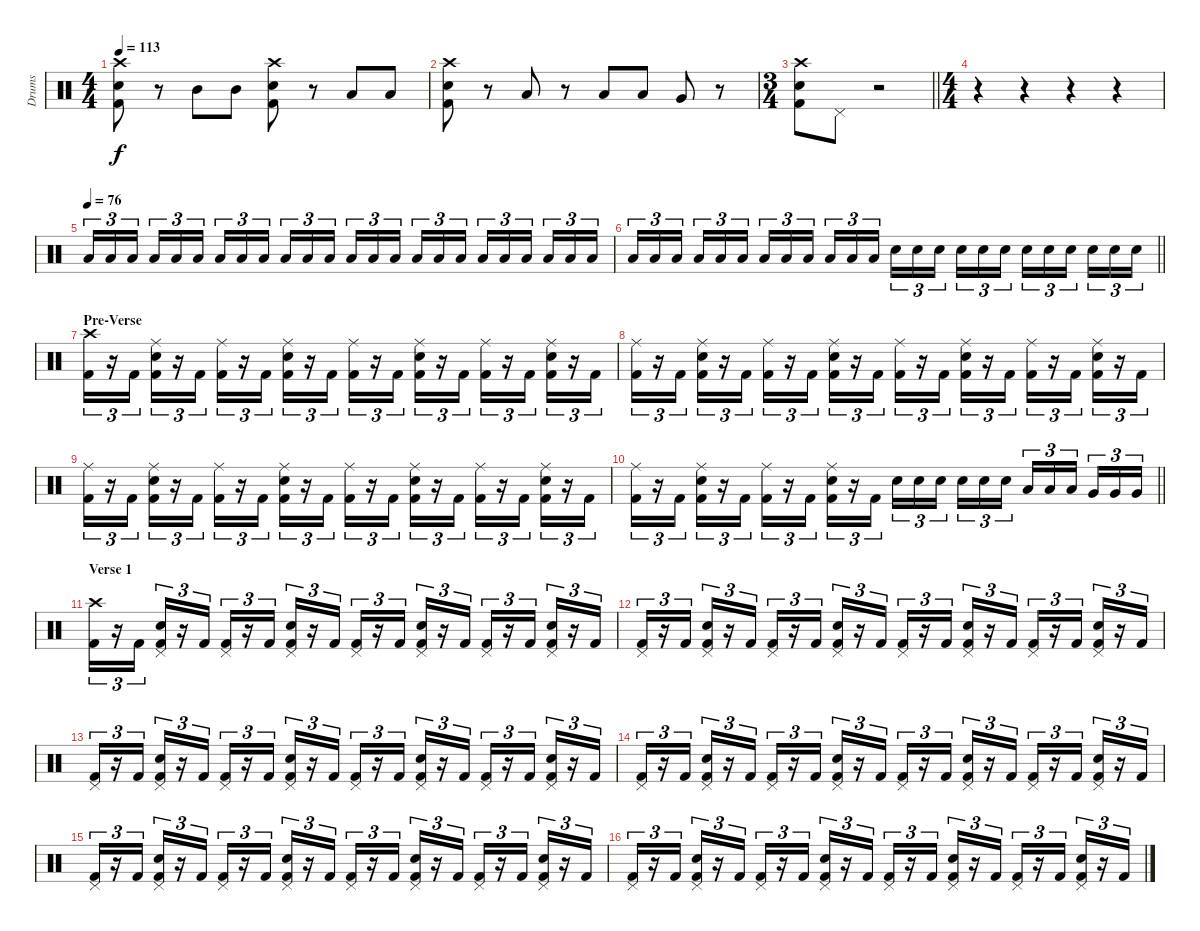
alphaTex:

\track ("Drums" "Drums") {instrument percussion}
\staff {score}
\articulation defaults
\ts (4 4)
\tempo 113
\clef neutral
\ks c
("Crash high (hit)" "Snare (hit) 2" "Kick (hit) 2").8{dy f} r.8 "Mid Tom (hit)".8 "Mid Tom (hit)".8 ("Crash high (hit)" "Snare (hit) 2" "Kick (hit) 2").8 r.8 "Low Tom (hit)".8 "Low Tom (hit)".8 |
("Crash high (hit)" "Snare (hit) 2" "Kick (hit) 2").8 r.8 "Low Tom (hit)".8 r.8 "Low Tom (hit)".8 "Low Tom (hit)".8 "Very Low Tom (hit)".8 r.8 |
\ts (3 4)
\barLineRight lightlight
("Crash high (hit)" "Snare (hit) 2" "Kick (hit) 2").8 "Pedal Hi-Hat (hit)".8 r.2 |
\ts (4 4)
r.4 r.4 r.4 r.4 |
\tempo (76)
"Low Tom (hit)".16{tu (3 2)} "Low Tom (hit)".16{tu (3 2)} "Low Tom (hit)".16{tu (3 2) beam splitsecondary} "Low Tom (hit)".16{tu (3 2)} "Low Tom (hit)".16{tu (3 2)} "Low Tom (hit)".16{tu (3 2)} "Low Tom (hit)".16{tu (3 2)} "Low Tom (hit)".16{tu (3 2)} "Low Tom (hit)".16{tu (3 2) beam splitsecondary} "Low Tom (hit)".16{tu (3 2)} "Low Tom (hit)".16{tu (3 2)} "Low Tom (hit)".16{tu (3 2)} "Low Tom (hit)".16{tu (3 2)} "Low Tom (hit)".16{tu (3 2)} "Low Tom (hit)".16{tu (3 2) beam splitsecondary} "Low Tom (hit)".16{tu (3 2)} "Low Tom (hit)".16{tu (3 2)} "Low Tom (hit)".16{tu (3 2)} "Low Tom (hit)".16{tu (3 2)} "Low Tom (hit)".16{tu (3 2)} "Low Tom (hit)".16{tu (3 2) beam splitsecondary} "Low Tom (hit)".16{tu (3 2)} "Low Tom (hit)".16{tu (3 2)} "Low Tom (hit)".16{tu (3 2)} |
\barLineRight lightlight "Low Tom (hit)".16{tu (3 2)} "Low Tom (hit)".16{tu (3 2)} "Low Tom (hit)".16{tu (3 2) beam splitsecondary} "Low Tom (hit)".16{tu (3 2)} "Low Tom (hit)".16{tu (3 2)} "Low Tom (hit)".16{tu (3 2)} "Low Tom (hit)".16{tu (3 2)} "Low Tom (hit)".16{tu (3 2)} "Low Tom (hit)".16{tu (3 2) beam splitsecondary} "Low Tom (hit)".16{tu (3 2)} "Low Tom (hit)".16{tu (3 2)} "Low Tom (hit)".16{tu (3 2)} "Snare (hit) 2".16{tu (3 2)} "Snare (hit) 2".16{tu (3 2)} "Snare (hit) 2".16{tu (3 2) beam splitsecondary} "Snare (hit) 2".16{tu (3 2)} "Snare (hit) 2".16{tu (3 2)} "Snare (hit) 2".16{tu (3 2)} "Snare (hit) 2".16{tu (3 2)} "Snare (hit) 2".16{tu (3 2)} "Snare (hit) 2".16{tu (3 2) beam splitsecondary} "Snare (hit) 2".16{tu (3 2)} "Snare (hit) 2".16{tu (3 2)} "Snare (hit) 2".16{tu (3 2)}
|
\section ("" "Pre-Verse")
("Crash high (hit)" "Kick (hit) 2").16{tu (3 2)} r.16{tu (3 2)} "Kick (hit) 2".16{tu (3 2)} ("Ride (middle)" "Snare (hit) 2" "Kick (hit) 2").16{tu (3 2)} r.16{tu (3 2)} "Kick (hit) 2".16{tu (3 2)} ("Ride (middle)" "Kick (hit) 2").16{tu (3 2)} r.16{tu (3 2)} "Kick (hit) 2".16{tu (3 2)} ("Ride (middle)" "Snare (hit) 2" "Kick (hit) 2").16{tu (3 2)} r.16{tu (3 2)} "Kick (hit) 2".16{tu (3 2)} ("Ride (middle)" "Kick (hit) 2").16{tu (3 2)} r.16{tu (3 2)} "Kick (hit) 2".16{tu (3 2)} ("Ride (middle)" "Snare (hit) 2" "Kick (hit) 2").16{tu (3 2)} r.16{tu (3 2)} "Kick (hit) 2".16{tu (3 2)} ("Ride (middle)" "Kick (hit) 2").16{tu (3 2)} r.16{tu (3 2)} "Kick (hit) 2".16{tu (3 2)} ("Ride (middle)" "Snare (hit) 2" "Kick (hit) 2").16{tu (3 2)} r.16{tu (3 2)} "Kick (hit) 2".16{tu (3 2)} |
("Ride (middle)" "Kick (hit) 2").16{tu (3 2)} r.16{tu (3 2)} "Kick (hit) 2".16{tu (3 2)} ("Ride (middle)" "Snare (hit) 2" "Kick (hit) 2").16{tu (3 2)} r.16{tu (3 2)} "Kick (hit) 2".16{tu (3 2)} ("Ride (middle)" "Kick (hit) 2").16{tu (3 2)} r.16{tu (3 2)} "Kick (hit) 2".16{tu (3 2)} ("Ride (middle)" "Snare (hit) 2" "Kick (hit) 2").16{tu (3 2)} r.16{tu (3 2)} "Kick (hit) 2".16{tu (3 2)} ("Ride (middle)" "Kick (hit) 2").16{tu (3 2)} r.16{tu (3 2)} "Kick (hit) 2".16{tu (3 2)} ("Ride (middle)" "Snare (hit) 2" "Kick (hit) 2").16{tu (3 2)} r.16{tu (3 2)} "Kick (hit) 2".16{tu (3 2)} ("Ride (middle)" "Kick (hit) 2").16{tu (3 2)} r.16{tu (3 2)} "Kick (hit) 2".16{tu (3 2)} ("Ride (middle)" "Snare (hit) 2" "Kick (hit) 2").16{tu (3 2)} r.16{tu (3 2)} "Kick (hit) 2".16{tu (3 2)} |
("Ride (middle)" "Kick (hit) 2").16{tu (3 2)} r.16{tu (3 2)} "Kick (hit) 2".16{tu (3 2)} ("Ride (middle)" "Snare (hit) 2" "Kick (hit) 2").16{tu (3 2)} r.16{tu (3 2)} "Kick (hit) 2".16{tu (3 2)} ("Ride (middle)" "Kick (hit) 2").16{tu (3 2)} r.16{tu (3 2)} "Kick (hit) 2".16{tu (3 2)} ("Ride (middle)" "Snare (hit) 2" "Kick (hit) 2").16{tu (3 2)} r.16{tu (3 2)} "Kick (hit) 2".16{tu (3 2)} ("Ride (middle)" "Kick (hit) 2").16{tu (3 2)} r.16{tu (3 2)} "Kick (hit) 2".16{tu (3 2)} ("Ride (middle)" "Snare (hit) 2" "Kick (hit) 2").16{tu (3 2)} r.16{tu (3 2)} "Kick (hit) 2".16{tu (3 2)} ("Ride (middle)" "Kick (hit) 2").16{tu (3 2)} r.16{tu (3 2)} "Kick (hit) 2".16{tu (3 2)} ("Ride (middle)" "Snare (hit) 2" "Kick (hit) 2").16{tu (3 2)} r.16{tu (3 2)} "Kick (hit) 2".16{tu (3 2)} |
\barLineRight lightlight
("Ride (middle)" "Kick (hit) 2").16{tu (3 2)} r.16{tu (3 2)} "Kick (hit) 2".16{tu (3 2)} ("Ride (middle)" "Snare (hit) 2" "Kick (hit) 2").16{tu (3 2)} r.16{tu (3 2)} "Kick (hit) 2".16{tu (3 2)} ("Ride (middle)" "Kick (hit) 2").16{tu (3 2)} r.16{tu (3 2)} "Kick (hit) 2".16{tu (3 2)} ("Ride (middle)" "Snare (hit) 2" "Kick (hit) 2").16{tu (3 2)} r.16{tu (3 2)} "Kick (hit) 2".16{tu (3 2)} "Snare (hit) 2".16{tu (3 2)} "Snare (hit) 2".16{tu (3 2)} "Snare (hit) 2".16{tu (3 2) beam splitsecondary} "Snare (hit) 2".16{tu (3 2)} "Snare (hit) 2".16{tu (3 2)} "Snare (hit) 2".16{tu (3 2)} "Low Tom (hit)".16{tu (3 2)} "Low Tom (hit)".16{tu (3 2)} "Low Tom (hit)".16{tu (3 2) beam splitsecondary} "Very Low Tom (hit)".16{tu (3 2)} "Very Low Tom (hit)".16{tu (3 2)} "Very Low Tom (hit)".16{tu (3 2)} |
\section ("" "Verse 1")
("Crash high (hit)" "Kick (hit) 2").16{tu (3 2)} r.16{tu (3 2)} "Kick (hit) 2".16{tu (3 2)} ("Pedal Hi-Hat (hit)" "Snare (hit) 2" "Kick (hit) 2").16{tu (3 2)} r.16{tu (3 2)} "Kick (hit) 2".16{tu (3 2)} ("Pedal Hi-Hat (hit)" "Kick (hit) 2").16{tu (3 2)} r.16{tu (3 2)} "Kick (hit) 2".16{tu (3 2)} ("Pedal Hi-Hat (hit)" "Snare (hit) 2" "Kick (hit) 2").16{tu (3 2)} r.16{tu (3 2)} "Kick (hit) 2".16{tu (3 2)} ("Pedal Hi-Hat (hit)" "Kick (hit) 2").16{tu (3 2)} r.16{tu (3 2)} "Kick (hit) 2".16{tu (3 2)} ("Pedal Hi-Hat (hit)" "Snare (hit) 2" "Kick (hit) 2").16{tu (3 2)} r.16{tu (3 2)} "Kick (hit) 2".16{tu (3 2)} ("Pedal Hi-Hat (hit)" "Kick (hit) 2").16{tu (3 2)} r.16{tu (3 2)} "Kick (hit) 2".16{tu (3 2)} ("Pedal Hi-Hat (hit)" "Snare (hit) 2" "Kick (hit) 2").16{tu (3 2)} r.16{tu (3 2)} "Kick (hit) 2".16{tu (3 2)} |
("Pedal Hi-Hat (hit)" "Kick (hit) 2").16{tu (3 2)} r.16{tu (3 2)} "Kick (hit) 2".16{tu (3 2)} ("Pedal Hi-Hat (hit)" "Snare (hit) 2" "Kick (hit) 2").16{tu (3 2)} r.16{tu (3 2)} "Kick (hit) 2".16{tu (3 2)} ("Pedal Hi-Hat (hit)" "Kick (hit) 2").16{tu (3 2)} r.16{tu (3 2)} "Kick (hit) 2".16{tu (3 2)} ("Pedal Hi-Hat (hit)" "Snare (hit) 2" "Kick (hit) 2").16{tu (3 2)} r.16{tu (3 2)} "Kick (hit) 2".16{tu (3 2)} ("Pedal Hi-Hat (hit)" "Kick (hit) 2").16{tu (3 2)} r.16{tu (3 2)} "Kick (hit) 2".16{tu (3 2)} ("Pedal Hi-Hat (hit)" "Snare (hit) 2" "Kick (hit) 2").16{tu (3 2)} r.16{tu (3 2)} "Kick (hit) 2".16{tu (3 2)} ("Pedal Hi-Hat (hit)" "Kick (hit) 2").16{tu (3 2)} r.16{tu (3 2)} "Kick (hit) 2".16{tu (3 2)} ("Pedal Hi-Hat (hit)" "Snare (hit) 2" "Kick (hit) 2").16{tu (3 2)} r.16{tu (3 2)} "Kick (hit) 2".16{tu (3 2)} |
("Pedal Hi-Hat (hit)" "Kick (hit) 2").16{tu (3 2)} r.16{tu (3 2)} "Kick (hit) 2".16{tu (3 2)} ("Pedal Hi-Hat (hit)" "Snare (hit) 2" "Kick (hit) 2").16{tu (3 2)} r.16{tu (3 2)} "Kick (hit) 2".16{tu (3 2)} ("Pedal Hi-Hat (hit)" "Kick (hit) 2").16{tu (3 2)} r.16{tu (3 2)} "Kick (hit) 2".16{tu (3 2)} ("Pedal Hi-Hat (hit)" "Snare (hit) 2" "Kick (hit) 2").16{tu (3 2)} r.16{tu (3 2)} "Kick (hit) 2".16{tu (3 2)} ("Pedal Hi-Hat (hit)" "Kick (hit) 2").16{tu (3 2)} r.16{tu (3 2)} "Kick (hit) 2".16{tu (3 2)} ("Pedal Hi-Hat (hit)" "Snare (hit) 2" "Kick (hit) 2").16{tu (3 2)} r.16{tu (3 2)} "Kick (hit) 2".16{tu (3 2)} ("Pedal Hi-Hat (hit)" "Kick (hit) 2").16{tu (3 2)} r.16{tu (3 2)} "Kick (hit) 2".16{tu (3 2)} ("Pedal Hi-Hat (hit)" "Snare (hit) 2" "Kick (hit) 2").16{tu (3 2)} r.16{tu (3 2)} "Kick (hit) 2".16{tu (3 2)} |
("Pedal Hi-Hat (hit)" "Kick (hit) 2").16{tu (3 2)} r.16{tu (3 2)} "Kick (hit) 2".16{tu (3 2)} ("Pedal Hi-Hat (hit)" "Snare (hit) 2" "Kick (hit) 2").16{tu (3 2)} r.16{tu (3 2)} "Kick (hit) 2".16{tu (3 2)} ("Pedal Hi-Hat (hit)" "Kick (hit) 2").16{tu (3 2)} r.16{tu (3 2)} "Kick (hit) 2".16{tu (3 2)} ("Pedal Hi-Hat (hit)" "Snare (hit) 2" "Kick (hit) 2").16{tu (3 2)} r.16{tu (3 2)} "Kick (hit) 2".16{tu (3 2)} ("Pedal Hi-Hat (hit)" "Kick (hit) 2").16{tu (3 2)} r.16{tu (3 2)} "Kick (hit) 2".16{tu (3 2)} ("Pedal Hi-Hat (hit)" "Snare (hit) 2" "Kick (hit) 2").16{tu (3 2)} r.16{tu (3 2)} "Kick (hit) 2".16{tu (3 2)} ("Pedal Hi-Hat (hit)" "Kick (hit) 2").16{tu (3 2)} r.16{tu (3 2)} "Kick (hit) 2".16{tu (3 2)} ("Pedal Hi-Hat (hit)" "Snare (hit) 2" "Kick (hit) 2").16{tu (3 2)} r.16{tu (3 2)} "Kick (hit) 2".16{tu (3 2)} |
("Pedal Hi-Hat (hit)" "Kick (hit) 2").16{tu (3 2)} r.16{tu (3 2)} "Kick (hit) 2".16{tu (3 2)} ("Pedal Hi-Hat (hit)" "Snare (hit) 2" "Kick (hit) 2").16{tu (3 2)} r.16{tu (3 2)} "Kick (hit) 2".16{tu (3 2)} ("Pedal Hi-Hat (hit)" "Kick (hit) 2").16{tu (3 2)} r.16{tu (3 2)} "Kick (hit) 2".16{tu (3 2)} ("Pedal Hi-Hat (hit)" "Snare (hit) 2" "Kick (hit) 2").16{tu (3 2)} r.16{tu (3 2)} "Kick (hit) 2".16{tu (3 2)} ("Pedal Hi-Hat (hit)" "Kick (hit) 2").16{tu (3 2)} r.16{tu (3 2)} "Kick (hit) 2".16{tu (3 2)} ("Pedal Hi-Hat (hit)" "Snare (hit) 2" "Kick (hit) 2").16{tu (3 2)} r.16{tu (3 2)} "Kick (hit) 2".16{tu (3 2)} ("Pedal Hi-Hat (hit)" "Kick (hit) 2").16{tu (3 2)} r.16{tu (3 2)} "Kick (hit) 2".16{tu (3 2)} ("Pedal Hi-Hat (hit)" "Snare (hit) 2" "Kick (hit) 2").16{tu (3 2)} r.16{tu (3 2)} "Kick (hit) 2".16{tu (3 2)} |
("Pedal Hi-Hat (hit)" "Kick (hit) 2").16{tu (3 2)} r.16{tu (3 2)} "Kick (hit) 2".16{tu (3 2)} ("Pedal Hi-Hat (hit)" "Snare (hit) 2" "Kick (hit) 2").16{tu (3 2)} r.16{tu (3 2)} "Kick (hit) 2".16{tu (3 2)} ("Pedal Hi-Hat (hit)" "Kick (hit) 2").16{tu (3 2)} r.16{tu (3 2)} "Kick (hit) 2".16{tu (3 2)} ("Pedal Hi-Hat (hit)" "Snare (hit) 2" "Kick (hit) 2").16{tu (3 2)} r.16{tu (3 2)} "Kick (hit) 2".16{tu (3 2)} ("Pedal Hi-Hat (hit)" "Kick (hit) 2").16{tu (3 2)} r.16{tu (3 2)} "Kick (hit) 2".16{tu (3 2)} ("Pedal Hi-Hat (hit)" "Snare (hit) 2" "Kick (hit) 2").16{tu (3 2)} r.16{tu (3 2)} "Kick (hit) 2".16{tu (3 2)} ("Pedal Hi-Hat (hit)" "Kick (hit) 2").16{tu (3 2)} r.16{tu (3 2)} "Kick (hit) 2".16{tu (3 2)} ("Pedal Hi-Hat (hit)" "Snare (hit) 2" "Kick (hit) 2").16{tu (3 2)} r.16{tu (3 2)} "Kick (hit) 2".16{tu (3 2)}
